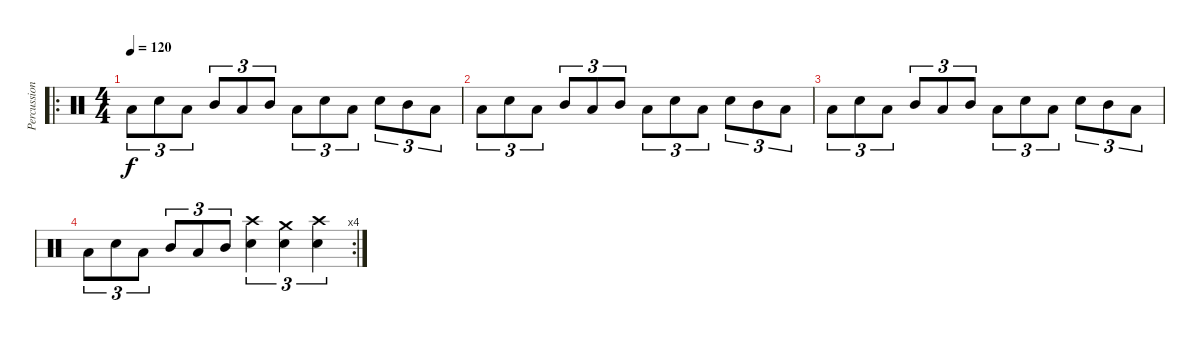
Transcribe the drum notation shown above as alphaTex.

\track ("Percussion" "Percussion") {instrument percussion}
\staff {score}
\articulation defaults
\ro
\ts (4 4)
\tempo 120
\clef neutral
\ks c "Low Floor Tom (hit)".8{tu (3 2) dy f} "Snare (hit) 2".8{tu (3 2)} "Low Floor Tom (hit)".8{tu (3 2)} "Mid Tom (hit)".8{tu (3 2)} "Low Tom (hit)".8{tu (3 2)} "Mid Tom (hit)".8{tu (3 2)} "Low Floor Tom (hit)".8{tu (3 2)} "Snare (hit) 2".8{tu (3 2)} "Low Floor Tom (hit)".8{tu (3 2)} "Snare (hit) 2".8{tu (3 2)} "Mid Tom (hit)".8{tu (3 2)} "Low Tom (hit)".8{tu (3 2)}
|
"Low Floor Tom (hit)".8{tu (3 2)} "Snare (hit) 2".8{tu (3 2)} "Low Floor Tom (hit)".8{tu (3 2)} "Mid Tom (hit)".8{tu (3 2)} "Low Tom (hit)".8{tu (3 2)} "Mid Tom (hit)".8{tu (3 2)} "Low Floor Tom (hit)".8{tu (3 2)} "Snare (hit) 2".8{tu (3 2)} "Low Floor Tom (hit)".8{tu (3 2)} "Snare (hit) 2".8{tu (3 2)} "Mid Tom (hit)".8{tu (3 2)} "Low Tom (hit)".8{tu (3 2)} |
"Low Floor Tom (hit)".8{tu (3 2)} "Snare (hit) 2".8{tu (3 2)} "Low Floor Tom (hit)".8{tu (3 2)} "Mid Tom (hit)".8{tu (3 2)} "Low Tom (hit)".8{tu (3 2)} "Mid Tom (hit)".8{tu (3 2)} "Low Floor Tom (hit)".8{tu (3 2)} "Snare (hit) 2".8{tu (3 2)} "Low Floor Tom (hit)".8{tu (3 2)} "Snare (hit) 2".8{tu (3 2)} "Mid Tom (hit)".8{tu (3 2)} "Low Tom (hit)".8{tu (3 2)} |
\rc 4 "Low Floor Tom (hit)".8{tu (3 2)} "Snare (hit) 2".8{tu (3 2)} "Low Floor Tom (hit)".8{tu (3 2)} "Mid Tom (hit)".8{tu (3 2)} "Low Tom (hit)".8{tu (3 2)} "Mid Tom (hit)".8{tu (3 2)}
("Crash high (hit)" "Snare (hit) 2").4{tu (3 2)} ("Crash medium (hit)" "Snare (hit) 2").4{tu (3 2)} ("Crash high (hit)" "Snare (hit) 2").4{tu (3 2)}
